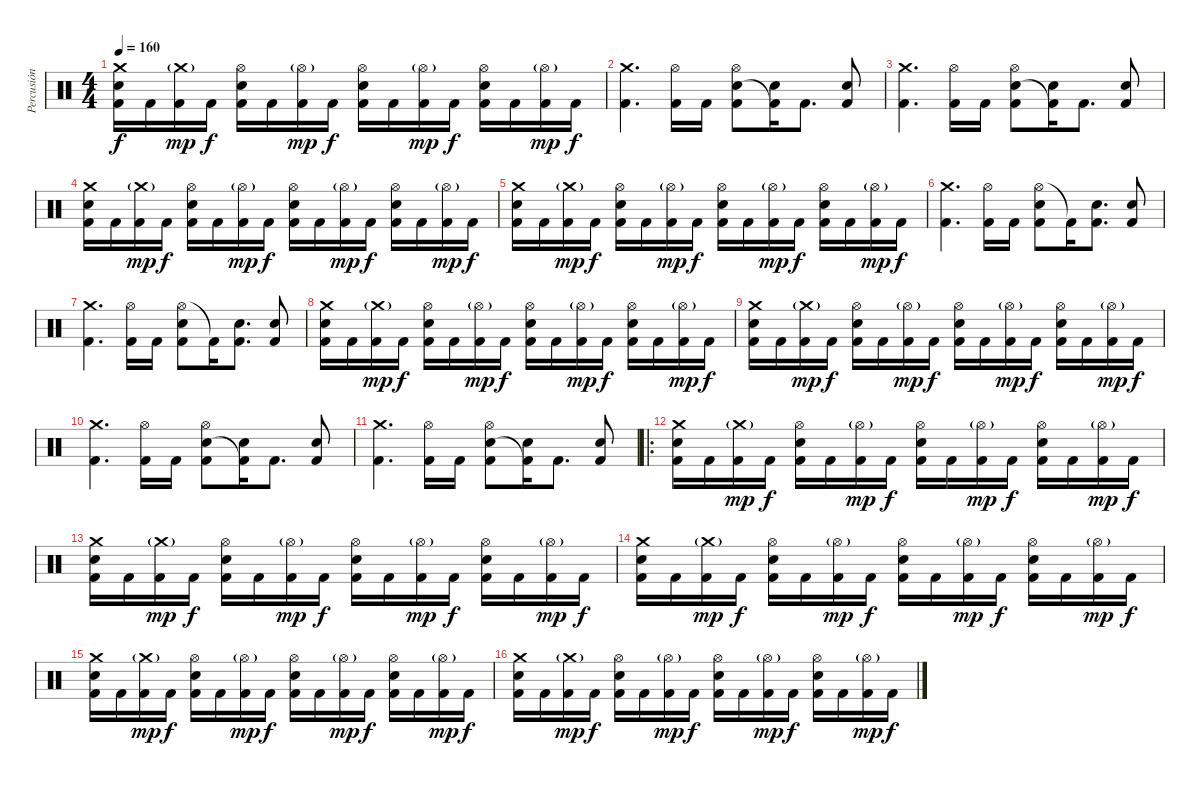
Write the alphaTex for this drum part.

\track ("Percusión" "Percusión") {instrument percussion}
\staff {score}
\articulation defaults
\ts (4 4)
\tempo 160
\clef neutral
\ks c
("Crash medium (hit)" "Electric Snare (hit)" "Kick (hit) 2").16{dy f} "Kick (hit) 2".16 ("Crash medium (hit)"{g} "Kick (hit) 2").16{dy mp} "Kick (hit) 2".16{dy f} ("Hi-Hat (open)" "Electric Snare (hit)" "Kick (hit) 2").16 "Kick (hit) 2".16 ("Hi-Hat (open)"{g} "Kick (hit) 2").16{dy mp} "Kick (hit) 2".16{dy f} ("Hi-Hat (open)" "Electric Snare (hit)" "Kick (hit) 2").16 "Kick (hit) 2".16 ("Hi-Hat (open)"{g} "Kick (hit) 2").16{dy mp} "Kick (hit) 2".16{dy f} ("Hi-Hat (open)" "Electric Snare (hit)" "Kick (hit) 2").16 "Kick (hit) 2".16 ("Hi-Hat (open)"{g} "Kick (hit) 2").16{dy mp} "Kick (hit) 2".16{dy f} |
("Crash medium (hit)" "Kick (hit) 2").4{d} ("Hi-Hat (open)" "Kick (hit) 2").16 "Kick (hit) 2".16 ("Hi-Hat (open)" "Electric Snare (hit)" "Kick (hit) 2").8 ("Electric Snare (hit)" "Kick (hit) 2"{t}).16 "Kick (hit) 2".8{d} ("Snare (hit) 2" "Kick (hit) 2").8 |
("Crash medium (hit)" "Kick (hit) 2").4{d} ("Hi-Hat (open)" "Kick (hit) 2").16 "Kick (hit) 2".16 ("Hi-Hat (open)" "Electric Snare (hit)" "Kick (hit) 2").8 ("Electric Snare (hit)" "Kick (hit) 2"{t}).16 "Kick (hit) 2".8{d} ("Snare (hit) 2" "Kick (hit) 2").8 |
("Crash medium (hit)" "Electric Snare (hit)" "Kick (hit) 2").16 "Kick (hit) 2".16 ("Crash medium (hit)"{g} "Kick (hit) 2").16{dy mp} "Kick (hit) 2".16{dy f} ("Hi-Hat (open)" "Electric Snare (hit)" "Kick (hit) 2").16 "Kick (hit) 2".16 ("Hi-Hat (open)"{g} "Kick (hit) 2").16{dy mp} "Kick (hit) 2".16{dy f} ("Hi-Hat (open)" "Electric Snare (hit)" "Kick (hit) 2").16 "Kick (hit) 2".16 ("Hi-Hat (open)"{g} "Kick (hit) 2").16{dy mp} "Kick (hit) 2".16{dy f} ("Hi-Hat (open)" "Electric Snare (hit)" "Kick (hit) 2").16 "Kick (hit) 2".16 ("Hi-Hat (open)"{g} "Kick (hit) 2").16{dy mp} "Kick (hit) 2".16{dy f} |
("Crash medium (hit)" "Electric Snare (hit)" "Kick (hit) 2").16 "Kick (hit) 2".16 ("Crash medium (hit)"{g} "Kick (hit) 2").16{dy mp} "Kick (hit) 2".16{dy f} ("Hi-Hat (open)" "Electric Snare (hit)" "Kick (hit) 2").16 "Kick (hit) 2".16 ("Hi-Hat (open)"{g} "Kick (hit) 2").16{dy mp} "Kick (hit) 2".16{dy f} ("Hi-Hat (open)" "Electric Snare (hit)" "Kick (hit) 2").16 "Kick (hit) 2".16 ("Hi-Hat (open)"{g} "Kick (hit) 2").16{dy mp} "Kick (hit) 2".16{dy f} ("Hi-Hat (open)" "Electric Snare (hit)" "Kick (hit) 2").16 "Kick (hit) 2".16 ("Hi-Hat (open)"{g} "Kick (hit) 2").16{dy mp} "Kick (hit) 2".16{dy f} |
("Crash medium (hit)" "Kick (hit) 2").4{d} ("Hi-Hat (open)" "Kick (hit) 2").16 "Kick (hit) 2".16 ("Hi-Hat (open)" "Electric Snare (hit)" "Kick (hit) 2").8 "Kick (hit) 2"{t}.16 ("Snare (hit) 2" "Kick (hit) 2").8{d} ("Snare (hit) 2" "Kick (hit) 2").8 |
("Crash medium (hit)" "Kick (hit) 2").4{d} ("Hi-Hat (open)" "Kick (hit) 2").16 "Kick (hit) 2".16 ("Hi-Hat (open)" "Electric Snare (hit)" "Kick (hit) 2").8 "Kick (hit) 2"{t}.16 ("Snare (hit) 2" "Kick (hit) 2").8{d} ("Snare (hit) 2" "Kick (hit) 2").8 |
("Crash medium (hit)" "Electric Snare (hit)" "Kick (hit) 2").16 "Kick (hit) 2".16 ("Crash medium (hit)"{g} "Kick (hit) 2").16{dy mp} "Kick (hit) 2".16{dy f} ("Hi-Hat (open)" "Electric Snare (hit)" "Kick (hit) 2").16 "Kick (hit) 2".16 ("Hi-Hat (open)"{g} "Kick (hit) 2").16{dy mp} "Kick (hit) 2".16{dy f} ("Hi-Hat (open)" "Electric Snare (hit)" "Kick (hit) 2").16 "Kick (hit) 2".16 ("Hi-Hat (open)"{g} "Kick (hit) 2").16{dy mp} "Kick (hit) 2".16{dy f} ("Hi-Hat (open)" "Electric Snare (hit)" "Kick (hit) 2").16 "Kick (hit) 2".16 ("Hi-Hat (open)"{g} "Kick (hit) 2").16{dy mp} "Kick (hit) 2".16{dy f} |
("Crash medium (hit)" "Electric Snare (hit)" "Kick (hit) 2").16 "Kick (hit) 2".16 ("Crash medium (hit)"{g} "Kick (hit) 2").16{dy mp} "Kick (hit) 2".16{dy f} ("Hi-Hat (open)" "Electric Snare (hit)" "Kick (hit) 2").16 "Kick (hit) 2".16 ("Hi-Hat (open)"{g} "Kick (hit) 2").16{dy mp} "Kick (hit) 2".16{dy f} ("Hi-Hat (open)" "Electric Snare (hit)" "Kick (hit) 2").16 "Kick (hit) 2".16 ("Hi-Hat (open)"{g} "Kick (hit) 2").16{dy mp} "Kick (hit) 2".16{dy f} ("Hi-Hat (open)" "Electric Snare (hit)" "Kick (hit) 2").16 "Kick (hit) 2".16 ("Hi-Hat (open)"{g} "Kick (hit) 2").16{dy mp} "Kick (hit) 2".16{dy f} |
("Crash medium (hit)" "Kick (hit) 2").4{d} ("Hi-Hat (open)" "Kick (hit) 2").16 "Kick (hit) 2".16 ("Hi-Hat (open)" "Electric Snare (hit)" "Kick (hit) 2").8 ("Electric Snare (hit)" "Kick (hit) 2"{t}).16 "Kick (hit) 2".8{d} ("Snare (hit) 2" "Kick (hit) 2").8 |
("Crash medium (hit)" "Kick (hit) 2").4{d} ("Hi-Hat (open)" "Kick (hit) 2").16 "Kick (hit) 2".16 ("Hi-Hat (open)" "Electric Snare (hit)" "Kick (hit) 2").8 ("Electric Snare (hit)" "Kick (hit) 2"{t}).16 "Kick (hit) 2".8{d} ("Snare (hit) 2" "Kick (hit) 2").8 |
\ro
("Crash medium (hit)" "Electric Snare (hit)" "Kick (hit) 2").16 "Kick (hit) 2".16 ("Crash medium (hit)"{g} "Kick (hit) 2").16{dy mp} "Kick (hit) 2".16{dy f} ("Hi-Hat (open)" "Electric Snare (hit)" "Kick (hit) 2").16 "Kick (hit) 2".16 ("Hi-Hat (open)"{g} "Kick (hit) 2").16{dy mp} "Kick (hit) 2".16{dy f} ("Hi-Hat (open)" "Electric Snare (hit)" "Kick (hit) 2").16 "Kick (hit) 2".16 ("Hi-Hat (open)"{g} "Kick (hit) 2").16{dy mp} "Kick (hit) 2".16{dy f} ("Hi-Hat (open)" "Electric Snare (hit)" "Kick (hit) 2").16 "Kick (hit) 2".16 ("Hi-Hat (open)"{g} "Kick (hit) 2").16{dy mp} "Kick (hit) 2".16{dy f} |
("Crash medium (hit)" "Electric Snare (hit)" "Kick (hit) 2").16 "Kick (hit) 2".16 ("Crash medium (hit)"{g} "Kick (hit) 2").16{dy mp} "Kick (hit) 2".16{dy f} ("Hi-Hat (open)" "Electric Snare (hit)" "Kick (hit) 2").16 "Kick (hit) 2".16 ("Hi-Hat (open)"{g} "Kick (hit) 2").16{dy mp} "Kick (hit) 2".16{dy f} ("Hi-Hat (open)" "Electric Snare (hit)" "Kick (hit) 2").16 "Kick (hit) 2".16 ("Hi-Hat (open)"{g} "Kick (hit) 2").16{dy mp} "Kick (hit) 2".16{dy f} ("Hi-Hat (open)" "Electric Snare (hit)" "Kick (hit) 2").16 "Kick (hit) 2".16 ("Hi-Hat (open)"{g} "Kick (hit) 2").16{dy mp} "Kick (hit) 2".16{dy f} |
("Crash medium (hit)" "Electric Snare (hit)" "Kick (hit) 2").16 "Kick (hit) 2".16 ("Crash medium (hit)"{g} "Kick (hit) 2").16{dy mp} "Kick (hit) 2".16{dy f} ("Hi-Hat (open)" "Electric Snare (hit)" "Kick (hit) 2").16 "Kick (hit) 2".16 ("Hi-Hat (open)"{g} "Kick (hit) 2").16{dy mp} "Kick (hit) 2".16{dy f} ("Hi-Hat (open)" "Electric Snare (hit)" "Kick (hit) 2").16 "Kick (hit) 2".16 ("Hi-Hat (open)"{g} "Kick (hit) 2").16{dy mp} "Kick (hit) 2".16{dy f} ("Hi-Hat (open)" "Electric Snare (hit)" "Kick (hit) 2").16 "Kick (hit) 2".16 ("Hi-Hat (open)"{g} "Kick (hit) 2").16{dy mp} "Kick (hit) 2".16{dy f} |
("Crash medium (hit)" "Electric Snare (hit)" "Kick (hit) 2").16 "Kick (hit) 2".16 ("Crash medium (hit)"{g} "Kick (hit) 2").16{dy mp} "Kick (hit) 2".16{dy f} ("Hi-Hat (open)" "Electric Snare (hit)" "Kick (hit) 2").16 "Kick (hit) 2".16 ("Hi-Hat (open)"{g} "Kick (hit) 2").16{dy mp} "Kick (hit) 2".16{dy f} ("Hi-Hat (open)" "Electric Snare (hit)" "Kick (hit) 2").16 "Kick (hit) 2".16 ("Hi-Hat (open)"{g} "Kick (hit) 2").16{dy mp} "Kick (hit) 2".16{dy f} ("Hi-Hat (open)" "Electric Snare (hit)" "Kick (hit) 2").16 "Kick (hit) 2".16 ("Hi-Hat (open)"{g} "Kick (hit) 2").16{dy mp} "Kick (hit) 2".16{dy f} |
("Crash medium (hit)" "Electric Snare (hit)" "Kick (hit) 2").16 "Kick (hit) 2".16 ("Crash medium (hit)"{g} "Kick (hit) 2").16{dy mp} "Kick (hit) 2".16{dy f} ("Hi-Hat (open)" "Electric Snare (hit)" "Kick (hit) 2").16 "Kick (hit) 2".16 ("Hi-Hat (open)"{g} "Kick (hit) 2").16{dy mp} "Kick (hit) 2".16{dy f} ("Hi-Hat (open)" "Electric Snare (hit)" "Kick (hit) 2").16 "Kick (hit) 2".16 ("Hi-Hat (open)"{g} "Kick (hit) 2").16{dy mp} "Kick (hit) 2".16{dy f} ("Hi-Hat (open)" "Electric Snare (hit)" "Kick (hit) 2").16 "Kick (hit) 2".16 ("Hi-Hat (open)"{g} "Kick (hit) 2").16{dy mp} "Kick (hit) 2".16{dy f}
